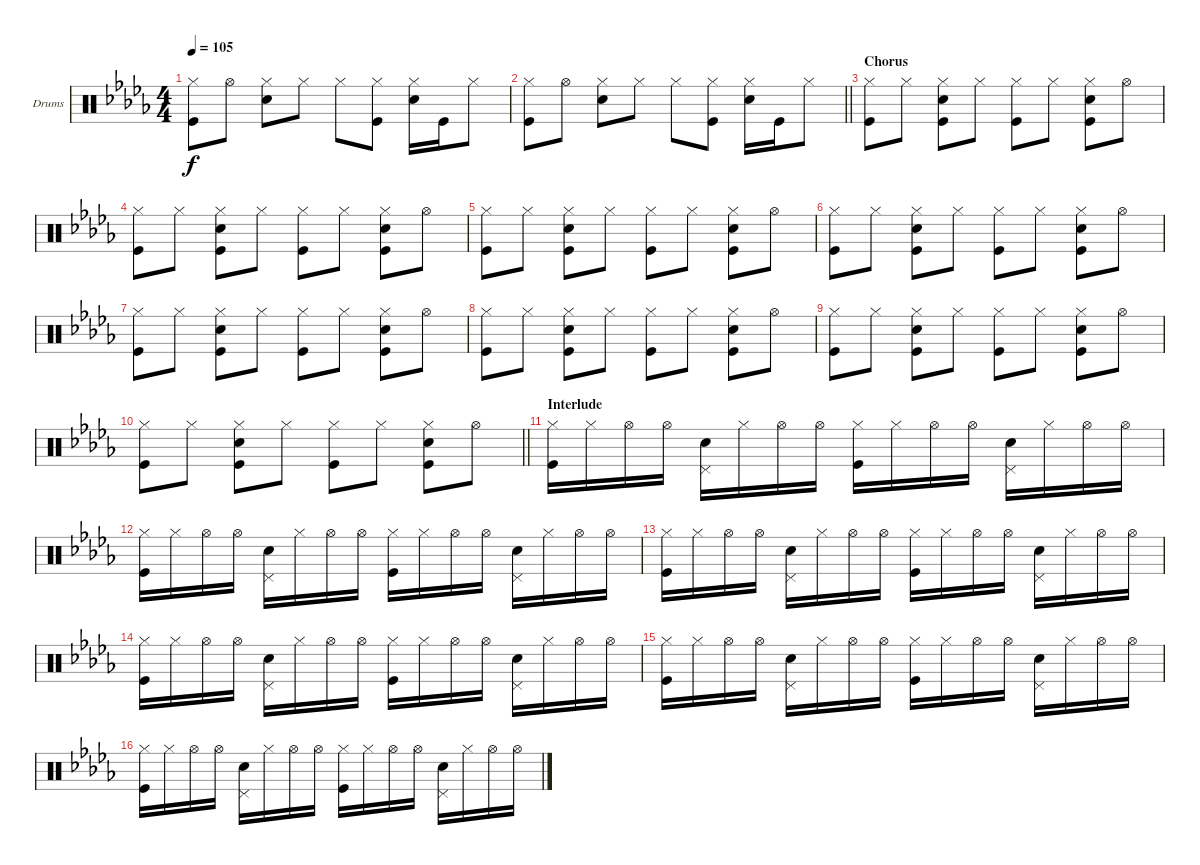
\bracketExtendMode groupsimilarinstruments
\firstSystemTrackNameOrientation horizontal
\otherSystemsTrackNameOrientation horizontal
\track ("Fabrizio" "Drums") {instrument percussion}
\staff {score}
\articulation defaults
\ts (4 4)
\tempo 105
\clef neutral
\ks db
("Hi-Hat (closed)" "Kick (hit)").8{dy f} "Hi-Hat (open)".8 ("Hi-Hat (closed)" "Snare (hit) 2").8 "Hi-Hat (closed)".8 "Hi-Hat (closed)".8 ("Hi-Hat (closed)" "Kick (hit)").8 ("Hi-Hat (closed)" "Snare (hit) 2").16 "Kick (hit)".16 "Hi-Hat (closed)".8 |
\barLineRight lightlight
("Hi-Hat (closed)" "Kick (hit)").8 "Hi-Hat (open)".8 ("Hi-Hat (closed)" "Snare (hit) 2").8 "Hi-Hat (closed)".8 "Hi-Hat (closed)".8 ("Hi-Hat (closed)" "Kick (hit)").8 ("Hi-Hat (closed)" "Snare (hit) 2").16 "Kick (hit)".16 "Hi-Hat (closed)".8 |
\section ("" "Chorus")
("Hi-Hat (closed)" "Kick (hit)").8 "Hi-Hat (closed)".8 ("Hi-Hat (closed)" "Snare (hit) 2" "Kick (hit)").8 "Hi-Hat (closed)".8 ("Hi-Hat (closed)" "Kick (hit)").8 "Hi-Hat (closed)".8 ("Hi-Hat (closed)" "Snare (hit) 2" "Kick (hit)").8 "Hi-Hat (open)".8 |
("Hi-Hat (closed)" "Kick (hit)").8 "Hi-Hat (closed)".8 ("Hi-Hat (closed)" "Snare (hit) 2" "Kick (hit)").8 "Hi-Hat (closed)".8 ("Hi-Hat (closed)" "Kick (hit)").8 "Hi-Hat (closed)".8 ("Hi-Hat (closed)" "Snare (hit) 2" "Kick (hit)").8 "Hi-Hat (open)".8 |
("Hi-Hat (closed)" "Kick (hit)").8 "Hi-Hat (closed)".8 ("Hi-Hat (closed)" "Snare (hit) 2" "Kick (hit)").8 "Hi-Hat (closed)".8 ("Hi-Hat (closed)" "Kick (hit)").8 "Hi-Hat (closed)".8 ("Hi-Hat (closed)" "Snare (hit) 2" "Kick (hit)").8 "Hi-Hat (open)".8 |
("Hi-Hat (closed)" "Kick (hit)").8 "Hi-Hat (closed)".8 ("Hi-Hat (closed)" "Snare (hit) 2" "Kick (hit)").8 "Hi-Hat (closed)".8 ("Hi-Hat (closed)" "Kick (hit)").8 "Hi-Hat (closed)".8 ("Hi-Hat (closed)" "Snare (hit) 2" "Kick (hit)").8 "Hi-Hat (open)".8 |
("Hi-Hat (closed)" "Kick (hit)").8 "Hi-Hat (closed)".8 ("Hi-Hat (closed)" "Snare (hit) 2" "Kick (hit)").8 "Hi-Hat (closed)".8 ("Hi-Hat (closed)" "Kick (hit)").8 "Hi-Hat (closed)".8 ("Hi-Hat (closed)" "Snare (hit) 2" "Kick (hit)").8 "Hi-Hat (open)".8 |
("Hi-Hat (closed)" "Kick (hit)").8 "Hi-Hat (closed)".8 ("Hi-Hat (closed)" "Snare (hit) 2" "Kick (hit)").8 "Hi-Hat (closed)".8 ("Hi-Hat (closed)" "Kick (hit)").8 "Hi-Hat (closed)".8 ("Hi-Hat (closed)" "Snare (hit) 2" "Kick (hit)").8 "Hi-Hat (open)".8 |
("Hi-Hat (closed)" "Kick (hit)").8 "Hi-Hat (closed)".8 ("Hi-Hat (closed)" "Snare (hit) 2" "Kick (hit)").8 "Hi-Hat (closed)".8 ("Hi-Hat (closed)" "Kick (hit)").8 "Hi-Hat (closed)".8 ("Hi-Hat (closed)" "Snare (hit) 2" "Kick (hit)").8 "Hi-Hat (open)".8 |
\barLineRight lightlight
("Hi-Hat (closed)" "Kick (hit)").8 "Hi-Hat (closed)".8 ("Hi-Hat (closed)" "Snare (hit) 2" "Kick (hit)").8 "Hi-Hat (closed)".8 ("Hi-Hat (closed)" "Kick (hit)").8 "Hi-Hat (closed)".8 ("Hi-Hat (closed)" "Snare (hit) 2" "Kick (hit)").8 "Hi-Hat (open)".8 |
\section ("" "Interlude")
("Hi-Hat (closed)" "Kick (hit)").16 "Hi-Hat (closed)".16 "Hi-Hat (open)".16 "Hi-Hat (open)".16 ("Pedal Hi-Hat (hit)" "Snare (hit) 2").16 "Hi-Hat (closed)".16 "Hi-Hat (open)".16 "Hi-Hat (open)".16 ("Hi-Hat (closed)" "Kick (hit)").16 "Hi-Hat (closed)".16 "Hi-Hat (open)".16 "Hi-Hat (open)".16 ("Pedal Hi-Hat (hit)" "Snare (hit) 2").16 "Hi-Hat (closed)".16 "Hi-Hat (open)".16 "Hi-Hat (open)".16 |
("Hi-Hat (closed)" "Kick (hit)").16 "Hi-Hat (closed)".16 "Hi-Hat (open)".16 "Hi-Hat (open)".16 ("Pedal Hi-Hat (hit)" "Snare (hit) 2").16 "Hi-Hat (closed)".16 "Hi-Hat (open)".16 "Hi-Hat (open)".16 ("Hi-Hat (closed)" "Kick (hit)").16 "Hi-Hat (closed)".16 "Hi-Hat (open)".16 "Hi-Hat (open)".16 ("Pedal Hi-Hat (hit)" "Snare (hit) 2").16 "Hi-Hat (closed)".16 "Hi-Hat (open)".16 "Hi-Hat (open)".16 |
("Hi-Hat (closed)" "Kick (hit)").16 "Hi-Hat (closed)".16 "Hi-Hat (open)".16 "Hi-Hat (open)".16 ("Pedal Hi-Hat (hit)" "Snare (hit) 2").16 "Hi-Hat (closed)".16 "Hi-Hat (open)".16 "Hi-Hat (open)".16 ("Hi-Hat (closed)" "Kick (hit)").16 "Hi-Hat (closed)".16 "Hi-Hat (open)".16 "Hi-Hat (open)".16 ("Pedal Hi-Hat (hit)" "Snare (hit) 2").16 "Hi-Hat (closed)".16 "Hi-Hat (open)".16 "Hi-Hat (open)".16 |
("Hi-Hat (closed)" "Kick (hit)").16 "Hi-Hat (closed)".16 "Hi-Hat (open)".16 "Hi-Hat (open)".16 ("Pedal Hi-Hat (hit)" "Snare (hit) 2").16 "Hi-Hat (closed)".16 "Hi-Hat (open)".16 "Hi-Hat (open)".16 ("Hi-Hat (closed)" "Kick (hit)").16 "Hi-Hat (closed)".16 "Hi-Hat (open)".16 "Hi-Hat (open)".16 ("Pedal Hi-Hat (hit)" "Snare (hit) 2").16 "Hi-Hat (closed)".16 "Hi-Hat (open)".16 "Hi-Hat (open)".16 |
("Hi-Hat (closed)" "Kick (hit)").16 "Hi-Hat (closed)".16 "Hi-Hat (open)".16 "Hi-Hat (open)".16 ("Pedal Hi-Hat (hit)" "Snare (hit) 2").16 "Hi-Hat (closed)".16 "Hi-Hat (open)".16 "Hi-Hat (open)".16 ("Hi-Hat (closed)" "Kick (hit)").16 "Hi-Hat (closed)".16 "Hi-Hat (open)".16 "Hi-Hat (open)".16 ("Pedal Hi-Hat (hit)" "Snare (hit) 2").16 "Hi-Hat (closed)".16 "Hi-Hat (open)".16 "Hi-Hat (open)".16 |
("Hi-Hat (closed)" "Kick (hit)").16 "Hi-Hat (closed)".16 "Hi-Hat (open)".16 "Hi-Hat (open)".16 ("Pedal Hi-Hat (hit)" "Snare (hit) 2").16 "Hi-Hat (closed)".16 "Hi-Hat (open)".16 "Hi-Hat (open)".16 ("Hi-Hat (closed)" "Kick (hit)").16 "Hi-Hat (closed)".16 "Hi-Hat (open)".16 "Hi-Hat (open)".16 ("Pedal Hi-Hat (hit)" "Snare (hit) 2").16 "Hi-Hat (closed)".16 "Hi-Hat (open)".16 "Hi-Hat (open)".16
